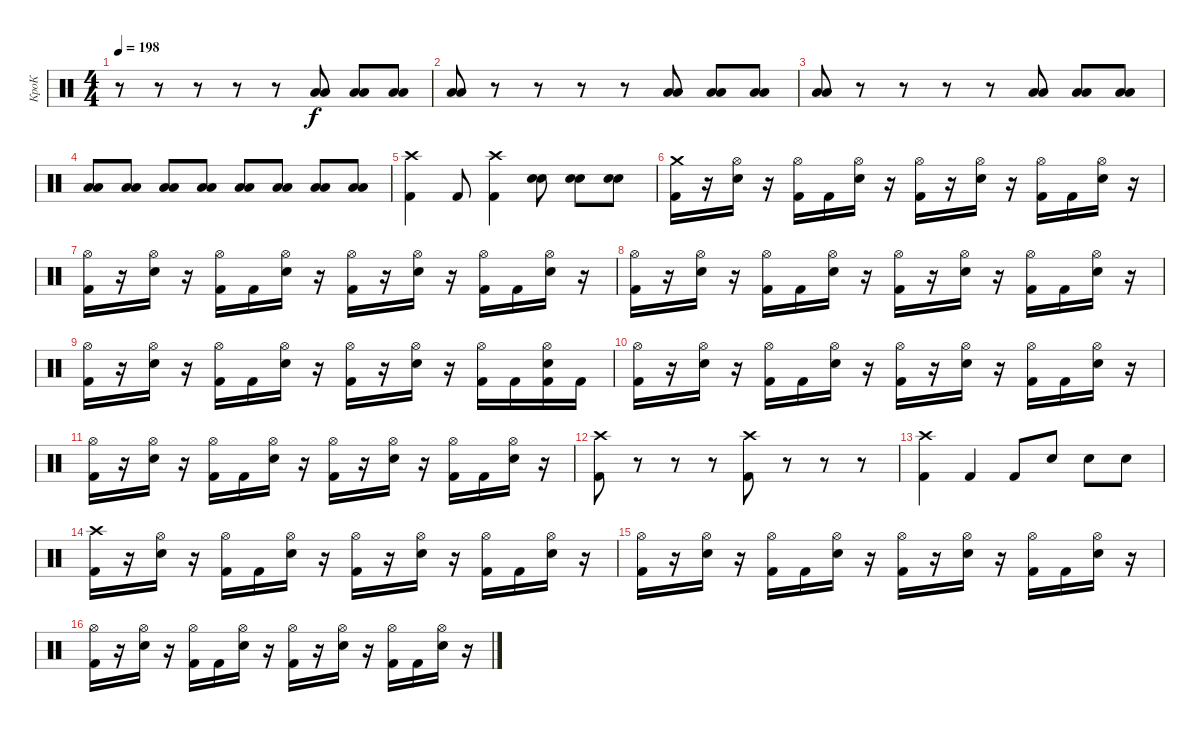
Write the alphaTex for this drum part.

\track ("КроК" "КроК") {instrument percussion}
\staff {score}
\articulation defaults
\ts (4 4)
\tempo 198
\clef neutral
\ks c
r.8{dy f} r.8 r.8 r.8 r.8 ("Low Tom (hit)" "Low Tom (hit)").8 ("Low Tom (hit)" "Low Tom (hit)").8 ("Low Tom (hit)" "Low Tom (hit)").8 |
("Low Floor Tom (hit)" "Low Floor Tom (hit)").8 r.8 r.8 r.8 r.8 ("Low Tom (hit)" "Low Tom (hit)").8 ("Low Tom (hit)" "Low Tom (hit)").8 ("Low Tom (hit)" "Low Tom (hit)").8 |
("Low Floor Tom (hit)" "Low Floor Tom (hit)").8 r.8 r.8 r.8 r.8 ("Low Tom (hit)" "Low Tom (hit)").8 ("Low Tom (hit)" "Low Tom (hit)").8 ("Low Tom (hit)" "Low Tom (hit)").8 |
("Low Floor Tom (hit)" "Low Floor Tom (hit)").8 ("Low Tom (hit)" "Low Tom (hit)").8 ("Low Tom (hit)" "Low Tom (hit)").8 ("Low Tom (hit)" "Low Tom (hit)").8 ("Low Floor Tom (hit)" "Low Floor Tom (hit)").8 ("Low Tom (hit)" "Low Tom (hit)").8 ("Low Tom (hit)" "Low Tom (hit)").8 ("Low Tom (hit)" "Low Tom (hit)").8 |
("Crash high (hit)" "Kick (hit) 2").4 "Kick (hit) 2".8 ("Crash high (hit)" "Kick (hit) 2").4 ("Electric Snare (hit)" "Electric Snare (hit)").8 ("Electric Snare (hit)" "Electric Snare (hit)").8 ("Electric Snare (hit)" "Electric Snare (hit)").8 |
("Crash medium (hit)" "Kick (hit) 2").16 r.16 ("Hi-Hat (open)" "Electric Snare (hit)").16 r.16 ("Hi-Hat (open)" "Kick (hit) 2").16 "Kick (hit) 2".16 ("Hi-Hat (open)" "Electric Snare (hit)").16 r.16 ("Hi-Hat (open)" "Kick (hit) 2").16 r.16 ("Hi-Hat (open)" "Electric Snare (hit)").16 r.16 ("Hi-Hat (open)" "Kick (hit) 2").16 "Kick (hit) 2".16 ("Hi-Hat (open)" "Electric Snare (hit)").16 r.16 |
("Hi-Hat (open)" "Kick (hit) 2").16 r.16 ("Hi-Hat (open)" "Electric Snare (hit)").16 r.16 ("Hi-Hat (open)" "Kick (hit) 2").16 "Kick (hit) 2".16 ("Hi-Hat (open)" "Electric Snare (hit)").16 r.16 ("Hi-Hat (open)" "Kick (hit) 2").16 r.16 ("Hi-Hat (open)" "Electric Snare (hit)").16 r.16 ("Hi-Hat (open)" "Kick (hit) 2").16 "Kick (hit) 2".16 ("Hi-Hat (open)" "Electric Snare (hit)").16 r.16 |
("Hi-Hat (open)" "Kick (hit) 2").16 r.16 ("Hi-Hat (open)" "Electric Snare (hit)").16 r.16 ("Hi-Hat (open)" "Kick (hit) 2").16 "Kick (hit) 2".16 ("Hi-Hat (open)" "Electric Snare (hit)").16 r.16 ("Hi-Hat (open)" "Kick (hit) 2").16 r.16 ("Hi-Hat (open)" "Electric Snare (hit)").16 r.16 ("Hi-Hat (open)" "Kick (hit) 2").16 "Kick (hit) 2".16 ("Hi-Hat (open)" "Electric Snare (hit)").16 r.16 |
("Hi-Hat (open)" "Kick (hit) 2").16 r.16 ("Hi-Hat (open)" "Electric Snare (hit)").16 r.16 ("Hi-Hat (open)" "Kick (hit) 2").16 "Kick (hit) 2".16 ("Hi-Hat (open)" "Electric Snare (hit)").16 r.16 ("Hi-Hat (open)" "Kick (hit) 2").16 r.16 ("Hi-Hat (open)" "Electric Snare (hit)").16 r.16 ("Hi-Hat (open)" "Kick (hit) 2").16 "Kick (hit) 2".16 ("Hi-Hat (open)" "Electric Snare (hit)" "Kick (hit) 2").16 "Kick (hit) 2".16 |
("Hi-Hat (open)" "Kick (hit) 2").16 r.16 ("Hi-Hat (open)" "Electric Snare (hit)").16 r.16 ("Hi-Hat (open)" "Kick (hit) 2").16 "Kick (hit) 2".16 ("Hi-Hat (open)" "Electric Snare (hit)").16 r.16 ("Hi-Hat (open)" "Kick (hit) 2").16 r.16 ("Hi-Hat (open)" "Electric Snare (hit)").16 r.16 ("Hi-Hat (open)" "Kick (hit) 2").16 "Kick (hit) 2".16 ("Hi-Hat (open)" "Electric Snare (hit)").16 r.16 |
("Hi-Hat (open)" "Kick (hit) 2").16 r.16 ("Hi-Hat (open)" "Electric Snare (hit)").16 r.16 ("Hi-Hat (open)" "Kick (hit) 2").16 "Kick (hit) 2".16 ("Hi-Hat (open)" "Electric Snare (hit)").16 r.16 ("Hi-Hat (open)" "Kick (hit) 2").16 r.16 ("Hi-Hat (open)" "Electric Snare (hit)").16 r.16 ("Hi-Hat (open)" "Kick (hit) 2").16 "Kick (hit) 2".16 ("Hi-Hat (open)" "Electric Snare (hit)").16 r.16 |
("Kick (hit) 2" "Crash high (hit)").8 r.8 r.8 r.8 ("Kick (hit) 2" "Crash high (hit)").8 r.8 r.8 r.8 |
("Kick (hit) 2" "Crash high (hit)").4 "Kick (hit) 2".4 "Kick (hit) 2".8 "Electric Snare (hit)".8 "Electric Snare (hit)".8 "Electric Snare (hit)".8 |
("Crash high (hit)" "Kick (hit) 2").16 r.16 ("Hi-Hat (open)" "Electric Snare (hit)").16 r.16 ("Hi-Hat (open)" "Kick (hit) 2").16 "Kick (hit) 2".16 ("Hi-Hat (open)" "Electric Snare (hit)").16 r.16 ("Hi-Hat (open)" "Kick (hit) 2").16 r.16 ("Hi-Hat (open)" "Electric Snare (hit)").16 r.16 ("Hi-Hat (open)" "Kick (hit) 2").16 "Kick (hit) 2".16 ("Hi-Hat (open)" "Electric Snare (hit)").16 r.16 |
("Hi-Hat (open)" "Kick (hit) 2").16 r.16 ("Hi-Hat (open)" "Electric Snare (hit)").16 r.16 ("Hi-Hat (open)" "Kick (hit) 2").16 "Kick (hit) 2".16 ("Hi-Hat (open)" "Electric Snare (hit)").16 r.16 ("Hi-Hat (open)" "Kick (hit) 2").16 r.16 ("Hi-Hat (open)" "Electric Snare (hit)").16 r.16 ("Hi-Hat (open)" "Kick (hit) 2").16 "Kick (hit) 2".16 ("Hi-Hat (open)" "Electric Snare (hit)").16 r.16 |
("Hi-Hat (open)" "Kick (hit) 2").16 r.16 ("Hi-Hat (open)" "Electric Snare (hit)").16 r.16 ("Hi-Hat (open)" "Kick (hit) 2").16 "Kick (hit) 2".16 ("Hi-Hat (open)" "Electric Snare (hit)").16 r.16 ("Hi-Hat (open)" "Kick (hit) 2").16 r.16 ("Hi-Hat (open)" "Electric Snare (hit)").16 r.16 ("Hi-Hat (open)" "Kick (hit) 2").16 "Kick (hit) 2".16 ("Hi-Hat (open)" "Electric Snare (hit)").16 r.16
